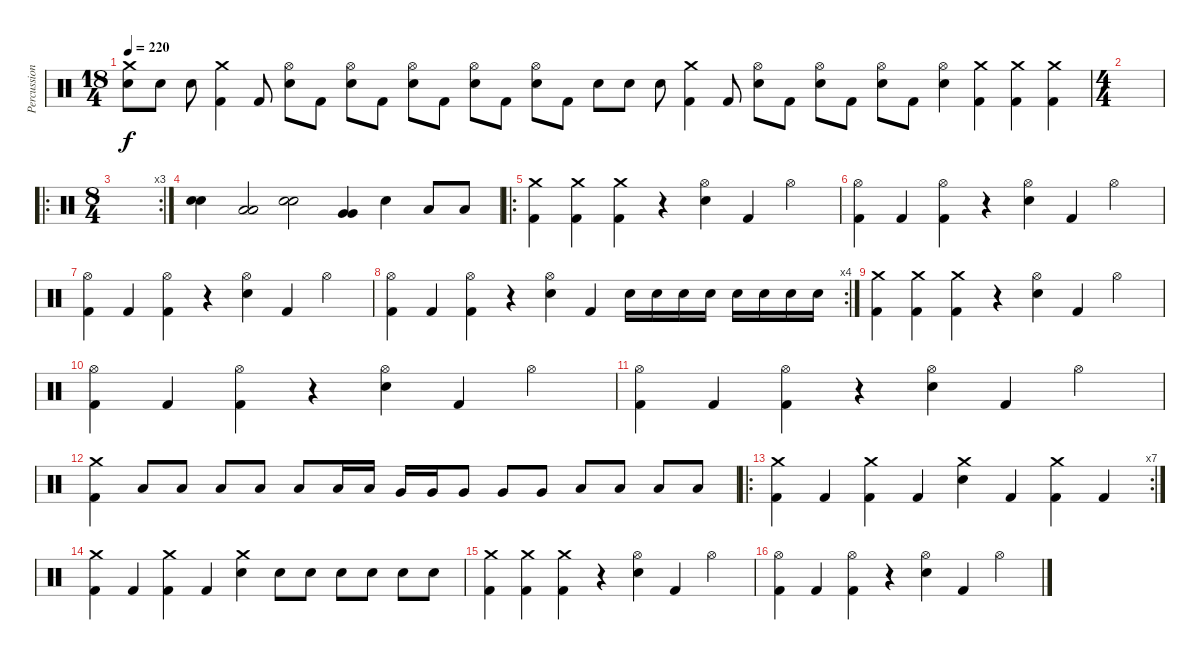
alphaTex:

\track ("Percussion" "Percussion") {instrument percussion}
\staff {score}
\articulation defaults
\ts (18 4)
\tempo 220
\clef neutral
\ks c
("Crash medium (hit)" "Electric Snare (hit)").8{dy f} "Electric Snare (hit)".8 "Electric Snare (hit)".8 ("Crash medium (hit)" "Kick (hit) 2").4 "Kick (hit) 2".8 ("Hi-Hat (open)" "Electric Snare (hit)").8 "Kick (hit) 2".8 ("Hi-Hat (open)" "Electric Snare (hit)").8 "Kick (hit) 2".8 ("Hi-Hat (open)" "Electric Snare (hit)").8 "Kick (hit) 2".8 ("Hi-Hat (open)" "Electric Snare (hit)").8 "Kick (hit) 2".8 ("Hi-Hat (open)" "Electric Snare (hit)").8 "Kick (hit) 2".8 "Electric Snare (hit)".8 "Electric Snare (hit)".8 "Electric Snare (hit)".8 ("Crash medium (hit)" "Kick (hit) 2").4 "Kick (hit) 2".8 ("Hi-Hat (open)" "Electric Snare (hit)").8 "Kick (hit) 2".8 ("Hi-Hat (open)" "Electric Snare (hit)").8 "Kick (hit) 2".8 ("Hi-Hat (open)" "Electric Snare (hit)").8 "Kick (hit) 2".8 ("Hi-Hat (open)" "Electric Snare (hit)").4 ("Crash medium (hit)" "Kick (hit) 2").4 ("Crash medium (hit)" "Kick (hit) 2").4 ("Crash medium (hit)" "Kick (hit) 2").4 |
\ts (4 4)
|
\ro
\rc 3
\ts (8 4)
|
("Electric Snare (hit)" "Electric Snare (hit)").4 ("Low Tom (hit)" "Low Tom (hit)").2 ("Electric Snare (hit)" "Electric Snare (hit)").2 ("Very Low Tom (hit)" "Very Low Tom (hit)").4 "Electric Snare (hit)".4 "Low Floor Tom (hit)".8 "Low Floor Tom (hit)".8 |
\ro
("Crash medium (hit)" "Kick (hit) 2").4 ("Crash medium (hit)" "Kick (hit) 2").4 ("Crash medium (hit)" "Kick (hit) 2").4 r.4 ("Hi-Hat (open)" "Electric Snare (hit)").4 "Kick (hit) 2".4 "Hi-Hat (open)".2 |
("Hi-Hat (open)" "Kick (hit) 2").4 "Kick (hit) 2".4 ("Hi-Hat (open)" "Kick (hit) 2").4 r.4 ("Hi-Hat (open)" "Electric Snare (hit)").4 "Kick (hit) 2".4 "Hi-Hat (open)".2 |
("Hi-Hat (open)" "Kick (hit) 2").4 "Kick (hit) 2".4 ("Hi-Hat (open)" "Kick (hit) 2").4 r.4 ("Hi-Hat (open)" "Electric Snare (hit)").4 "Kick (hit) 2".4 "Hi-Hat (open)".2 |
\rc 4
("Hi-Hat (open)" "Kick (hit) 2").4 "Kick (hit) 2".4 ("Hi-Hat (open)" "Kick (hit) 2").4 r.4 ("Hi-Hat (open)" "Electric Snare (hit)").4 "Kick (hit) 2".4 "Electric Snare (hit)".16 "Electric Snare (hit)".16 "Electric Snare (hit)".16 "Electric Snare (hit)".16 "Electric Snare (hit)".16 "Electric Snare (hit)".16 "Electric Snare (hit)".16 "Electric Snare (hit)".16 |
("Crash medium (hit)" "Kick (hit) 2").4 ("Crash medium (hit)" "Kick (hit) 2").4 ("Crash medium (hit)" "Kick (hit) 2").4 r.4 ("Hi-Hat (open)" "Electric Snare (hit)").4 "Kick (hit) 2".4 "Hi-Hat (open)".2 |
("Hi-Hat (open)" "Kick (hit) 2").4 "Kick (hit) 2".4 ("Hi-Hat (open)" "Kick (hit) 2").4 r.4 ("Hi-Hat (open)" "Electric Snare (hit)").4 "Kick (hit) 2".4 "Hi-Hat (open)".2 |
("Hi-Hat (open)" "Kick (hit) 2").4 "Kick (hit) 2".4 ("Hi-Hat (open)" "Kick (hit) 2").4 r.4 ("Hi-Hat (open)" "Electric Snare (hit)").4 "Kick (hit) 2".4 "Hi-Hat (open)".2 |
("Crash medium (hit)" "Kick (hit) 2").4 "Low Tom (hit)".8 "Low Tom (hit)".8 "Low Tom (hit)".8 "Low Tom (hit)".8 "Low Tom (hit)".8 "Low Tom (hit)".16 "Low Tom (hit)".16 "Very Low Tom (hit)".16 "Very Low Tom (hit)".16 "Very Low Tom (hit)".8 "Very Low Tom (hit)".8 "Very Low Tom (hit)".8 "Low Floor Tom (hit)".8 "Low Floor Tom (hit)".8 "Low Floor Tom (hit)".8 "Low Floor Tom (hit)".8 |
\ro
\rc 7
("Crash medium (hit)" "Kick (hit) 2").4 "Kick (hit) 2".4 ("Crash medium (hit)" "Kick (hit) 2").4 "Kick (hit) 2".4 ("Crash medium (hit)" "Electric Snare (hit)").4 "Kick (hit) 2".4 ("Crash medium (hit)" "Kick (hit) 2").4 "Kick (hit) 2".4 |
("Crash medium (hit)" "Kick (hit) 2").4 "Kick (hit) 2".4 ("Crash medium (hit)" "Kick (hit) 2").4 "Kick (hit) 2".4 ("Crash medium (hit)" "Electric Snare (hit)").4 "Electric Snare (hit)".8 "Electric Snare (hit)".8 "Electric Snare (hit)".8 "Electric Snare (hit)".8 "Electric Snare (hit)".8 "Electric Snare (hit)".8 |
("Crash medium (hit)" "Kick (hit) 2").4 ("Crash medium (hit)" "Kick (hit) 2").4 ("Crash medium (hit)" "Kick (hit) 2").4 r.4 ("Hi-Hat (open)" "Electric Snare (hit)").4 "Kick (hit) 2".4 "Hi-Hat (open)".2 |
("Hi-Hat (open)" "Kick (hit) 2").4 "Kick (hit) 2".4 ("Hi-Hat (open)" "Kick (hit) 2").4 r.4 ("Hi-Hat (open)" "Electric Snare (hit)").4 "Kick (hit) 2".4 "Hi-Hat (open)".2
